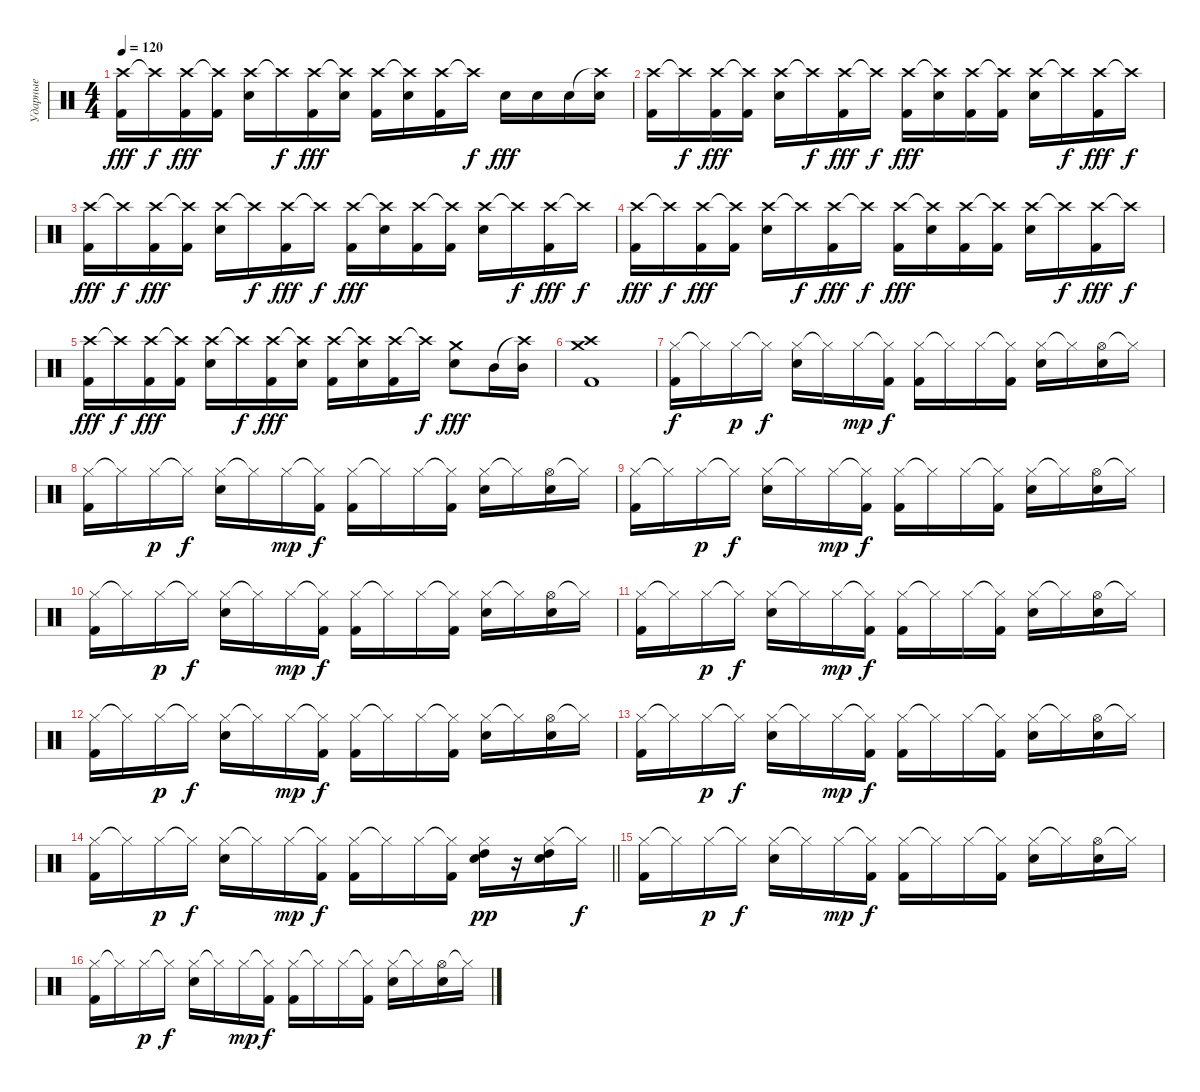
\track ("Ударные" "Ударные") {instrument percussion}
\staff {score}
\articulation defaults
\ts (4 4)
\tempo 120
\clef neutral
\ks c
("Crash high (hit)" "Kick (hit) 2").16{dy fff} "Crash high (hit)"{t}.16{dy f} ("Crash high (hit)" "Kick (hit) 2").16{dy fff} ("Crash high (hit)"{t} "Kick (hit) 2").16 ("Crash high (hit)" "Electric Snare (hit)").16 "Crash high (hit)"{t}.16{dy f} ("Crash high (hit)" "Kick (hit) 2").16{dy fff} ("Crash high (hit)"{t} "Electric Snare (hit)").16 ("Crash high (hit)" "Kick (hit) 2").16 ("Crash high (hit)"{t} "Electric Snare (hit)").16 ("Crash high (hit)" "Kick (hit) 2").16 "Crash high (hit)"{t}.16{dy f} "Electric Snare (hit)".16{dy fff} "Electric Snare (hit)".16 "Electric Snare (hit)".16 ("Crash high (hit)"{t} "Electric Snare (hit)").16 |
("Crash high (hit)" "Kick (hit) 2").16 "Crash high (hit)"{t}.16{dy f} ("Crash high (hit)" "Kick (hit) 2").16{dy fff} ("Crash high (hit)"{t} "Kick (hit) 2").16 ("Crash high (hit)" "Electric Snare (hit)").16 "Crash high (hit)"{t}.16{dy f} ("Crash high (hit)" "Kick (hit) 2").16{dy fff} "Crash high (hit)"{t}.16{dy f} ("Crash high (hit)" "Kick (hit) 2").16{dy fff} ("Crash high (hit)"{t} "Electric Snare (hit)").16 ("Crash high (hit)" "Kick (hit) 2").16 ("Crash high (hit)"{t} "Kick (hit) 2").16 ("Crash high (hit)" "Electric Snare (hit)").16 "Crash high (hit)"{t}.16{dy f} ("Crash high (hit)" "Kick (hit) 2").16{dy fff} "Crash high (hit)"{t}.16{dy f} |
("Crash high (hit)" "Kick (hit) 2").16{dy fff} "Crash high (hit)"{t}.16{dy f} ("Crash high (hit)" "Kick (hit) 2").16{dy fff} ("Crash high (hit)"{t} "Kick (hit) 2").16 ("Crash high (hit)" "Electric Snare (hit)").16 "Crash high (hit)"{t}.16{dy f} ("Crash high (hit)" "Kick (hit) 2").16{dy fff} "Crash high (hit)"{t}.16{dy f} ("Crash high (hit)" "Kick (hit) 2").16{dy fff} ("Crash high (hit)"{t} "Electric Snare (hit)").16 ("Crash high (hit)" "Kick (hit) 2").16 ("Crash high (hit)"{t} "Kick (hit) 2").16 ("Crash high (hit)" "Electric Snare (hit)").16 "Crash high (hit)"{t}.16{dy f} ("Crash high (hit)" "Kick (hit) 2").16{dy fff} "Crash high (hit)"{t}.16{dy f} |
("Crash high (hit)" "Kick (hit) 2").16{dy fff} "Crash high (hit)"{t}.16{dy f} ("Crash high (hit)" "Kick (hit) 2").16{dy fff} ("Crash high (hit)"{t} "Kick (hit) 2").16 ("Crash high (hit)" "Electric Snare (hit)").16 "Crash high (hit)"{t}.16{dy f} ("Crash high (hit)" "Kick (hit) 2").16{dy fff} "Crash high (hit)"{t}.16{dy f} ("Crash high (hit)" "Kick (hit) 2").16{dy fff} ("Crash high (hit)"{t} "Electric Snare (hit)").16 ("Crash high (hit)" "Kick (hit) 2").16 ("Crash high (hit)"{t} "Kick (hit) 2").16 ("Crash high (hit)" "Electric Snare (hit)").16 "Crash high (hit)"{t}.16{dy f} ("Crash high (hit)" "Kick (hit) 2").16{dy fff} "Crash high (hit)"{t}.16{dy f} |
("Crash high (hit)" "Kick (hit) 2").16{dy fff} "Crash high (hit)"{t}.16{dy f} ("Crash high (hit)" "Kick (hit) 2").16{dy fff} ("Crash high (hit)"{t} "Kick (hit) 2").16 ("Crash high (hit)" "Electric Snare (hit)").16 "Crash high (hit)"{t}.16{dy f} ("Crash high (hit)" "Kick (hit) 2").16{dy fff} ("Crash high (hit)"{t} "Electric Snare (hit)").16 ("Crash high (hit)" "Kick (hit) 2").16 ("Crash high (hit)"{t} "Electric Snare (hit)").16 ("Crash high (hit)" "Kick (hit) 2").16 "Crash high (hit)"{t}.16{dy f} ("Crash medium (hit)" "Electric Snare (hit)").8{dy fff} "Mid Tom (hit)".16 ("Crash high (hit)"{t} "Mid Tom (hit)").16 |
("Crash high (hit)" "Crash medium (hit)" "Kick (hit) 2").1 |
("Hi-Hat (closed)" "Kick (hit) 2").16{dy f} "Hi-Hat (closed)"{t}.16 "Hi-Hat (closed)".16{dy p} "Hi-Hat (closed)"{t}.16{dy f} ("Hi-Hat (closed)" "Electric Snare (hit)").16 "Hi-Hat (closed)"{t}.16 "Hi-Hat (closed)".16{dy mp} ("Hi-Hat (closed)"{t} "Kick (hit) 2").16{dy f} ("Hi-Hat (closed)" "Kick (hit) 2").16 "Hi-Hat (closed)"{t}.16 "Hi-Hat (closed)".16 ("Hi-Hat (closed)"{t} "Kick (hit) 2").16 ("Hi-Hat (closed)" "Electric Snare (hit)").16 "Hi-Hat (closed)"{t}.16 ("Hi-Hat (open)" "Electric Snare (hit)").16 "Hi-Hat (closed)"{t}.16 |
("Hi-Hat (closed)" "Kick (hit) 2").16 "Hi-Hat (closed)"{t}.16 "Hi-Hat (closed)".16{dy p} "Hi-Hat (closed)"{t}.16{dy f} ("Hi-Hat (closed)" "Electric Snare (hit)").16 "Hi-Hat (closed)"{t}.16 "Hi-Hat (closed)".16{dy mp} ("Hi-Hat (closed)"{t} "Kick (hit) 2").16{dy f} ("Hi-Hat (closed)" "Kick (hit) 2").16 "Hi-Hat (closed)"{t}.16 "Hi-Hat (closed)".16 ("Hi-Hat (closed)"{t} "Kick (hit) 2").16 ("Hi-Hat (closed)" "Electric Snare (hit)").16 "Hi-Hat (closed)"{t}.16 ("Hi-Hat (open)" "Electric Snare (hit)").16 "Hi-Hat (closed)"{t}.16 |
("Hi-Hat (closed)" "Kick (hit) 2").16 "Hi-Hat (closed)"{t}.16 "Hi-Hat (closed)".16{dy p} "Hi-Hat (closed)"{t}.16{dy f} ("Hi-Hat (closed)" "Electric Snare (hit)").16 "Hi-Hat (closed)"{t}.16 "Hi-Hat (closed)".16{dy mp} ("Hi-Hat (closed)"{t} "Kick (hit) 2").16{dy f} ("Hi-Hat (closed)" "Kick (hit) 2").16 "Hi-Hat (closed)"{t}.16 "Hi-Hat (closed)".16 ("Hi-Hat (closed)"{t} "Kick (hit) 2").16 ("Hi-Hat (closed)" "Electric Snare (hit)").16 "Hi-Hat (closed)"{t}.16 ("Hi-Hat (open)" "Electric Snare (hit)").16 "Hi-Hat (closed)"{t}.16 |
("Hi-Hat (closed)" "Kick (hit) 2").16 "Hi-Hat (closed)"{t}.16 "Hi-Hat (closed)".16{dy p} "Hi-Hat (closed)"{t}.16{dy f} ("Hi-Hat (closed)" "Electric Snare (hit)").16 "Hi-Hat (closed)"{t}.16 "Hi-Hat (closed)".16{dy mp} ("Hi-Hat (closed)"{t} "Kick (hit) 2").16{dy f} ("Hi-Hat (closed)" "Kick (hit) 2").16 "Hi-Hat (closed)"{t}.16 "Hi-Hat (closed)".16 ("Hi-Hat (closed)"{t} "Kick (hit) 2").16 ("Hi-Hat (closed)" "Electric Snare (hit)").16 "Hi-Hat (closed)"{t}.16 ("Hi-Hat (open)" "Electric Snare (hit)").16 "Hi-Hat (closed)"{t}.16 |
("Hi-Hat (closed)" "Kick (hit) 2").16 "Hi-Hat (closed)"{t}.16 "Hi-Hat (closed)".16{dy p} "Hi-Hat (closed)"{t}.16{dy f} ("Hi-Hat (closed)" "Electric Snare (hit)").16 "Hi-Hat (closed)"{t}.16 "Hi-Hat (closed)".16{dy mp} ("Hi-Hat (closed)"{t} "Kick (hit) 2").16{dy f} ("Hi-Hat (closed)" "Kick (hit) 2").16 "Hi-Hat (closed)"{t}.16 "Hi-Hat (closed)".16 ("Hi-Hat (closed)"{t} "Kick (hit) 2").16 ("Hi-Hat (closed)" "Electric Snare (hit)").16 "Hi-Hat (closed)"{t}.16 ("Hi-Hat (open)" "Electric Snare (hit)").16 "Hi-Hat (closed)"{t}.16 |
("Hi-Hat (closed)" "Kick (hit) 2").16 "Hi-Hat (closed)"{t}.16 "Hi-Hat (closed)".16{dy p} "Hi-Hat (closed)"{t}.16{dy f} ("Hi-Hat (closed)" "Electric Snare (hit)").16 "Hi-Hat (closed)"{t}.16 "Hi-Hat (closed)".16{dy mp} ("Hi-Hat (closed)"{t} "Kick (hit) 2").16{dy f} ("Hi-Hat (closed)" "Kick (hit) 2").16 "Hi-Hat (closed)"{t}.16 "Hi-Hat (closed)".16 ("Hi-Hat (closed)"{t} "Kick (hit) 2").16 ("Hi-Hat (closed)" "Electric Snare (hit)").16 "Hi-Hat (closed)"{t}.16 ("Hi-Hat (open)" "Electric Snare (hit)").16 "Hi-Hat (closed)"{t}.16 |
("Hi-Hat (closed)" "Kick (hit) 2").16 "Hi-Hat (closed)"{t}.16 "Hi-Hat (closed)".16{dy p} "Hi-Hat (closed)"{t}.16{dy f} ("Hi-Hat (closed)" "Electric Snare (hit)").16 "Hi-Hat (closed)"{t}.16 "Hi-Hat (closed)".16{dy mp} ("Hi-Hat (closed)"{t} "Kick (hit) 2").16{dy f} ("Hi-Hat (closed)" "Kick (hit) 2").16 "Hi-Hat (closed)"{t}.16 "Hi-Hat (closed)".16 ("Hi-Hat (closed)"{t} "Kick (hit) 2").16 ("Hi-Hat (closed)" "Electric Snare (hit)").16 "Hi-Hat (closed)"{t}.16 ("Hi-Hat (open)" "Electric Snare (hit)").16 "Hi-Hat (closed)"{t}.16 |
\barLineRight lightlight
("Hi-Hat (closed)" "Kick (hit) 2").16 "Hi-Hat (closed)"{t}.16 "Hi-Hat (closed)".16{dy p} "Hi-Hat (closed)"{t}.16{dy f} ("Hi-Hat (closed)" "Electric Snare (hit)").16 "Hi-Hat (closed)"{t}.16 "Hi-Hat (closed)".16{dy mp} ("Hi-Hat (closed)"{t} "Kick (hit) 2").16{dy f} ("Hi-Hat (closed)" "Kick (hit) 2").16 "Hi-Hat (closed)"{t}.16 "Hi-Hat (closed)".16 ("Hi-Hat (closed)"{t} "Kick (hit) 2").16 ("Hi-Hat (closed)" "High Tom (hit)" "Electric Snare (hit)").16{dy pp} r.16 ("Hi-Hat (closed)" "High Tom (hit)" "Electric Snare (hit)").16 "Hi-Hat (closed)"{t}.16{dy f} |
("Hi-Hat (closed)" "Kick (hit) 2").16 "Hi-Hat (closed)"{t}.16 "Hi-Hat (closed)".16{dy p} "Hi-Hat (closed)"{t}.16{dy f} ("Hi-Hat (closed)" "Electric Snare (hit)").16 "Hi-Hat (closed)"{t}.16 "Hi-Hat (closed)".16{dy mp} ("Hi-Hat (closed)"{t} "Kick (hit) 2").16{dy f} ("Hi-Hat (closed)" "Kick (hit) 2").16 "Hi-Hat (closed)"{t}.16 "Hi-Hat (closed)".16 ("Hi-Hat (closed)"{t} "Kick (hit) 2").16 ("Hi-Hat (closed)" "Electric Snare (hit)").16 "Hi-Hat (closed)"{t}.16 ("Hi-Hat (open)" "Electric Snare (hit)").16 "Hi-Hat (closed)"{t}.16 |
("Hi-Hat (closed)" "Kick (hit) 2").16 "Hi-Hat (closed)"{t}.16 "Hi-Hat (closed)".16{dy p} "Hi-Hat (closed)"{t}.16{dy f} ("Hi-Hat (closed)" "Electric Snare (hit)").16 "Hi-Hat (closed)"{t}.16 "Hi-Hat (closed)".16{dy mp} ("Hi-Hat (closed)"{t} "Kick (hit) 2").16{dy f} ("Hi-Hat (closed)" "Kick (hit) 2").16 "Hi-Hat (closed)"{t}.16 "Hi-Hat (closed)".16 ("Hi-Hat (closed)"{t} "Kick (hit) 2").16 ("Hi-Hat (closed)" "Electric Snare (hit)").16 "Hi-Hat (closed)"{t}.16 ("Hi-Hat (open)" "Electric Snare (hit)").16 "Hi-Hat (closed)"{t}.16
